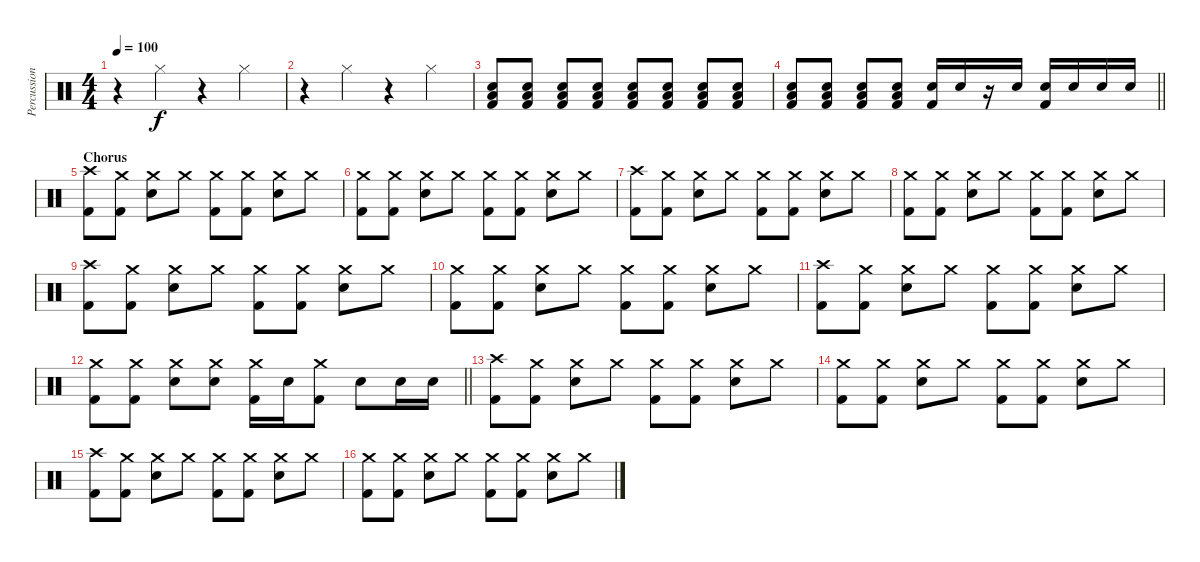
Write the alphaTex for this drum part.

\track ("Percussion" "Percussion") {instrument percussion}
\staff {score}
\articulation defaults
\ts (4 4)
\tempo 100
\clef neutral
\ks c
r.4{dy f} "Hi-Hat (closed)".4 r.4 "Hi-Hat (closed)".4 |
r.4 "Hi-Hat (closed)".4 r.4 "Hi-Hat (closed)".4 |
("Kick (hit) 2" "Low Tom (hit)" "Snare (hit) 2").8 ("Kick (hit) 2" "Low Tom (hit)" "Snare (hit) 2").8 ("Kick (hit) 2" "Low Tom (hit)" "Snare (hit) 2").8 ("Kick (hit) 2" "Low Tom (hit)" "Snare (hit) 2").8 ("Kick (hit) 2" "Low Tom (hit)" "Snare (hit) 2").8 ("Kick (hit) 2" "Low Tom (hit)" "Snare (hit) 2").8 ("Kick (hit) 2" "Low Tom (hit)" "Snare (hit) 2").8 ("Kick (hit) 2" "Low Tom (hit)" "Snare (hit) 2").8 |
\barLineRight lightlight
("Kick (hit) 2" "Low Tom (hit)" "Snare (hit) 2").8 ("Kick (hit) 2" "Low Tom (hit)" "Snare (hit) 2").8 ("Kick (hit) 2" "Low Tom (hit)" "Snare (hit) 2").8 ("Kick (hit) 2" "Low Tom (hit)" "Snare (hit) 2").8 ("Kick (hit) 2" "Snare (hit) 2").16 "Snare (hit) 2".16 r.16 "Snare (hit) 2".16 ("Kick (hit) 2" "Snare (hit) 2").16 "Snare (hit) 2".16 "Snare (hit) 2".16 "Snare (hit) 2".16 |
\section ("" "Chorus")
("Kick (hit) 2" "Crash high (hit)").8 ("Kick (hit) 2" "Crash medium (hit)").8 ("Snare (hit) 2" "Crash medium (hit)").8 "Crash medium (hit)".8 ("Kick (hit) 2" "Crash medium (hit)").8 ("Kick (hit) 2" "Crash medium (hit)").8 ("Snare (hit) 2" "Crash medium (hit)").8 "Crash medium (hit)".8 |
("Kick (hit) 2" "Crash medium (hit)").8 ("Kick (hit) 2" "Crash medium (hit)").8 ("Snare (hit) 2" "Crash medium (hit)").8 "Crash medium (hit)".8 ("Kick (hit) 2" "Crash medium (hit)").8 ("Kick (hit) 2" "Crash medium (hit)").8 ("Snare (hit) 2" "Crash medium (hit)").8 "Crash medium (hit)".8 |
("Kick (hit) 2" "Crash high (hit)").8 ("Kick (hit) 2" "Crash medium (hit)").8 ("Snare (hit) 2" "Crash medium (hit)").8 "Crash medium (hit)".8 ("Kick (hit) 2" "Crash medium (hit)").8 ("Kick (hit) 2" "Crash medium (hit)").8 ("Snare (hit) 2" "Crash medium (hit)").8 "Crash medium (hit)".8 |
("Kick (hit) 2" "Crash medium (hit)").8 ("Kick (hit) 2" "Crash medium (hit)").8 ("Snare (hit) 2" "Crash medium (hit)").8 "Crash medium (hit)".8 ("Kick (hit) 2" "Crash medium (hit)").8 ("Kick (hit) 2" "Crash medium (hit)").8 ("Snare (hit) 2" "Crash medium (hit)").8 "Crash medium (hit)".8 |
("Kick (hit) 2" "Crash high (hit)").8 ("Kick (hit) 2" "Crash medium (hit)").8 ("Snare (hit) 2" "Crash medium (hit)").8 "Crash medium (hit)".8 ("Kick (hit) 2" "Crash medium (hit)").8 ("Kick (hit) 2" "Crash medium (hit)").8 ("Snare (hit) 2" "Crash medium (hit)").8 "Crash medium (hit)".8 |
("Kick (hit) 2" "Crash medium (hit)").8 ("Kick (hit) 2" "Crash medium (hit)").8 ("Snare (hit) 2" "Crash medium (hit)").8 "Crash medium (hit)".8 ("Kick (hit) 2" "Crash medium (hit)").8 ("Kick (hit) 2" "Crash medium (hit)").8 ("Snare (hit) 2" "Crash medium (hit)").8 "Crash medium (hit)".8 |
("Kick (hit) 2" "Crash high (hit)").8 ("Kick (hit) 2" "Crash medium (hit)").8 ("Snare (hit) 2" "Crash medium (hit)").8 "Crash medium (hit)".8 ("Kick (hit) 2" "Crash medium (hit)").8 ("Kick (hit) 2" "Crash medium (hit)").8 ("Snare (hit) 2" "Crash medium (hit)").8 "Crash medium (hit)".8 |
\barLineRight lightlight
("Kick (hit) 2" "Crash medium (hit)").8 ("Kick (hit) 2" "Crash medium (hit)").8 ("Snare (hit) 2" "Crash medium (hit)").8 ("Snare (hit) 2" "Crash medium (hit)").8 ("Kick (hit) 2" "Crash medium (hit)").16 "Snare (hit) 2".16 ("Kick (hit) 2" "Crash medium (hit)").8 "Snare (hit) 2".8 "Snare (hit) 2".16 "Snare (hit) 2".16 |
("Kick (hit) 2" "Crash high (hit)").8 ("Kick (hit) 2" "Crash medium (hit)").8 ("Snare (hit) 2" "Crash medium (hit)").8 "Crash medium (hit)".8 ("Kick (hit) 2" "Crash medium (hit)").8 ("Kick (hit) 2" "Crash medium (hit)").8 ("Snare (hit) 2" "Crash medium (hit)").8 "Crash medium (hit)".8 |
("Kick (hit) 2" "Crash medium (hit)").8 ("Kick (hit) 2" "Crash medium (hit)").8 ("Snare (hit) 2" "Crash medium (hit)").8 "Crash medium (hit)".8 ("Kick (hit) 2" "Crash medium (hit)").8 ("Kick (hit) 2" "Crash medium (hit)").8 ("Snare (hit) 2" "Crash medium (hit)").8 "Crash medium (hit)".8 |
("Kick (hit) 2" "Crash high (hit)").8 ("Kick (hit) 2" "Crash medium (hit)").8 ("Snare (hit) 2" "Crash medium (hit)").8 "Crash medium (hit)".8 ("Kick (hit) 2" "Crash medium (hit)").8 ("Kick (hit) 2" "Crash medium (hit)").8 ("Snare (hit) 2" "Crash medium (hit)").8 "Crash medium (hit)".8 |
("Kick (hit) 2" "Crash medium (hit)").8 ("Kick (hit) 2" "Crash medium (hit)").8 ("Snare (hit) 2" "Crash medium (hit)").8 "Crash medium (hit)".8 ("Kick (hit) 2" "Crash medium (hit)").8 ("Kick (hit) 2" "Crash medium (hit)").8 ("Snare (hit) 2" "Crash medium (hit)").8 "Crash medium (hit)".8
